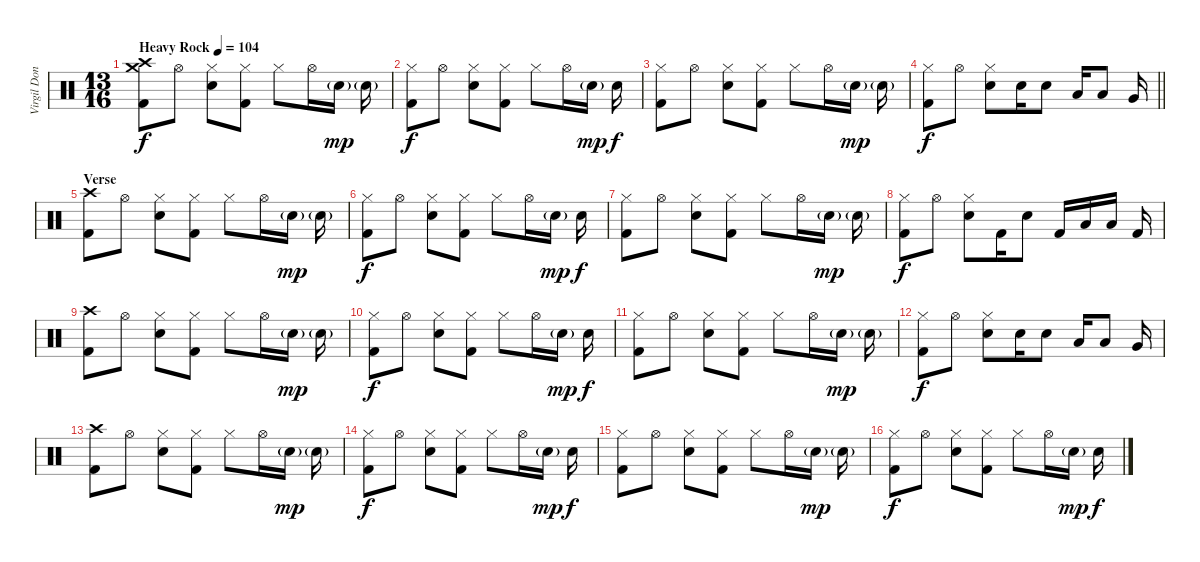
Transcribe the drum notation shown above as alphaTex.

\track ("Virgil Donati" "Virgil Don") {instrument percussion}
\staff {score}
\articulation defaults
\ts (13 16)
\tempo (104 "Heavy Rock")
\clef neutral
\ks c
("Crash high (hit)" "Crash medium (hit)" "Kick (hit) 2").8{dy f} "Hi-Hat (open)".8 ("Hi-Hat (closed)" "Snare (hit) 2").8 ("Hi-Hat (closed)" "Kick (hit) 2").8 "Hi-Hat (closed)".8 "Hi-Hat (open)".16 "Snare (hit) 2"{g}.16{dy mp} "Snare (hit) 2"{g}.16 |
("Hi-Hat (closed)" "Kick (hit) 2").8{dy f} "Hi-Hat (open)".8 ("Hi-Hat (closed)" "Snare (hit) 2").8 ("Hi-Hat (closed)" "Kick (hit) 2").8 "Hi-Hat (closed)".8 "Hi-Hat (open)".16 "Snare (hit) 2"{g}.16{dy mp} "Snare (hit) 2".16{dy f} |
("Hi-Hat (closed)" "Kick (hit) 2").8 "Hi-Hat (open)".8 ("Hi-Hat (closed)" "Snare (hit) 2").8 ("Hi-Hat (closed)" "Kick (hit) 2").8 "Hi-Hat (closed)".8 "Hi-Hat (open)".16 "Snare (hit) 2"{g}.16{dy mp} "Snare (hit) 2"{g}.16 |
\barLineRight lightlight
("Hi-Hat (closed)" "Kick (hit) 2").8{dy f} "Hi-Hat (open)".8 ("Hi-Hat (closed)" "Snare (hit) 2").8 "Snare (hit) 2".16 "Snare (hit) 2".8 "Low Tom (hit)".16 "Low Tom (hit)".8 "Very Low Tom (hit)".16 |
\section ("" "Verse")
("Crash high (hit)" "Kick (hit) 2").8 "Hi-Hat (open)".8 ("Hi-Hat (closed)" "Snare (hit) 2").8 ("Hi-Hat (closed)" "Kick (hit) 2").8 "Hi-Hat (closed)".8 "Hi-Hat (open)".16 "Snare (hit) 2"{g}.16{dy mp} "Snare (hit) 2"{g}.16 |
("Hi-Hat (closed)" "Kick (hit) 2").8{dy f} "Hi-Hat (open)".8 ("Hi-Hat (closed)" "Snare (hit) 2").8 ("Hi-Hat (closed)" "Kick (hit) 2").8 "Hi-Hat (closed)".8 "Hi-Hat (open)".16 "Snare (hit) 2"{g}.16{dy mp} "Snare (hit) 2".16{dy f} |
("Hi-Hat (closed)" "Kick (hit) 2").8 "Hi-Hat (open)".8 ("Hi-Hat (closed)" "Snare (hit) 2").8 ("Hi-Hat (closed)" "Kick (hit) 2").8 "Hi-Hat (closed)".8 "Hi-Hat (open)".16 "Snare (hit) 2"{g}.16{dy mp} "Snare (hit) 2"{g}.16 |
("Hi-Hat (closed)" "Kick (hit) 2").8{dy f} "Hi-Hat (open)".8 ("Hi-Hat (closed)" "Snare (hit) 2").8 "Kick (hit) 2".16 "Snare (hit) 2".8 "Kick (hit) 2".16 "Low Tom (hit)".16 "Low Tom (hit)".16 "Kick (hit) 2".16 |
("Crash high (hit)" "Kick (hit) 2").8 "Hi-Hat (open)".8 ("Hi-Hat (closed)" "Snare (hit) 2").8 ("Hi-Hat (closed)" "Kick (hit) 2").8 "Hi-Hat (closed)".8 "Hi-Hat (open)".16 "Snare (hit) 2"{g}.16{dy mp} "Snare (hit) 2"{g}.16 |
("Hi-Hat (closed)" "Kick (hit) 2").8{dy f} "Hi-Hat (open)".8 ("Hi-Hat (closed)" "Snare (hit) 2").8 ("Hi-Hat (closed)" "Kick (hit) 2").8 "Hi-Hat (closed)".8 "Hi-Hat (open)".16 "Snare (hit) 2"{g}.16{dy mp} "Snare (hit) 2".16{dy f} |
("Hi-Hat (closed)" "Kick (hit) 2").8 "Hi-Hat (open)".8 ("Hi-Hat (closed)" "Snare (hit) 2").8 ("Hi-Hat (closed)" "Kick (hit) 2").8 "Hi-Hat (closed)".8 "Hi-Hat (open)".16 "Snare (hit) 2"{g}.16{dy mp} "Snare (hit) 2"{g}.16 |
("Hi-Hat (closed)" "Kick (hit) 2").8{dy f} "Hi-Hat (open)".8 ("Hi-Hat (closed)" "Snare (hit) 2").8 "Snare (hit) 2".16 "Snare (hit) 2".8 "Low Tom (hit)".16 "Low Tom (hit)".8 "Very Low Tom (hit)".16 |
("Crash high (hit)" "Kick (hit) 2").8 "Hi-Hat (open)".8 ("Hi-Hat (closed)" "Snare (hit) 2").8 ("Hi-Hat (closed)" "Kick (hit) 2").8 "Hi-Hat (closed)".8 "Hi-Hat (open)".16 "Snare (hit) 2"{g}.16{dy mp} "Snare (hit) 2"{g}.16 |
("Hi-Hat (closed)" "Kick (hit) 2").8{dy f} "Hi-Hat (open)".8 ("Hi-Hat (closed)" "Snare (hit) 2").8 ("Hi-Hat (closed)" "Kick (hit) 2").8 "Hi-Hat (closed)".8 "Hi-Hat (open)".16 "Snare (hit) 2"{g}.16{dy mp} "Snare (hit) 2".16{dy f} |
("Hi-Hat (closed)" "Kick (hit) 2").8 "Hi-Hat (open)".8 ("Hi-Hat (closed)" "Snare (hit) 2").8 ("Hi-Hat (closed)" "Kick (hit) 2").8 "Hi-Hat (closed)".8 "Hi-Hat (open)".16 "Snare (hit) 2"{g}.16{dy mp} "Snare (hit) 2"{g}.16 |
("Hi-Hat (closed)" "Kick (hit) 2").8{dy f} "Hi-Hat (open)".8 ("Hi-Hat (closed)" "Snare (hit) 2").8 ("Hi-Hat (closed)" "Kick (hit) 2").8 "Hi-Hat (closed)".8 "Hi-Hat (open)".16 "Snare (hit) 2"{g}.16{dy mp} "Snare (hit) 2".16{dy f}
